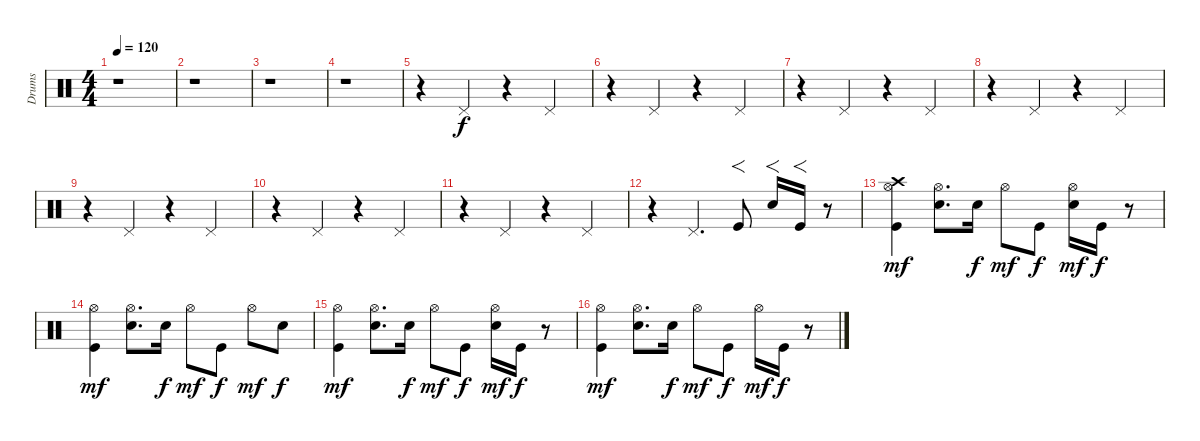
\track ("Drums" "Drums") {instrument percussion}
\staff {score}
\articulation defaults
\ts (4 4)
\tempo 120
\clef neutral
\ks c
r.1{dy f} |
r.1 |
r.1 |
r.1 |
r.4 "Pedal Hi-Hat (hit)".4 r.4 "Pedal Hi-Hat (hit)".4 |
r.4 "Pedal Hi-Hat (hit)".4 r.4 "Pedal Hi-Hat (hit)".4 |
r.4 "Pedal Hi-Hat (hit)".4 r.4 "Pedal Hi-Hat (hit)".4 |
r.4 "Pedal Hi-Hat (hit)".4 r.4 "Pedal Hi-Hat (hit)".4 |
r.4 "Pedal Hi-Hat (hit)".4 r.4 "Pedal Hi-Hat (hit)".4 |
r.4 "Pedal Hi-Hat (hit)".4 r.4 "Pedal Hi-Hat (hit)".4 |
r.4 "Pedal Hi-Hat (hit)".4 r.4 "Pedal Hi-Hat (hit)".4 |
r.4 "Pedal Hi-Hat (hit)".4{d} "Kick (hit)".8{f} "Electric Snare (hit)".16{f} "Kick (hit)".16{f} r.8 |
("Crash high (hit)" "Hi-Hat (open)" "Kick (hit)").4{dy mf} ("Hi-Hat (open)" "Electric Snare (hit)").8{d} "Electric Snare (hit)".16{dy f} "Hi-Hat (open)".8{dy mf} "Kick (hit)".8{dy f} ("Hi-Hat (open)" "Electric Snare (hit)").16{dy mf} "Kick (hit)".16{dy f} r.8 |
("Hi-Hat (open)" "Kick (hit)").4{dy mf} ("Hi-Hat (open)" "Electric Snare (hit)").8{d} "Electric Snare (hit)".16{dy f} "Hi-Hat (open)".8{dy mf} "Kick (hit)".8{dy f} "Hi-Hat (open)".8{dy mf} "Electric Snare (hit)".8{dy f} |
("Hi-Hat (open)" "Kick (hit)").4{dy mf} ("Hi-Hat (open)" "Electric Snare (hit)").8{d} "Electric Snare (hit)".16{dy f} "Hi-Hat (open)".8{dy mf} "Kick (hit)".8{dy f} ("Hi-Hat (open)" "Electric Snare (hit)").16{dy mf} "Kick (hit)".16{dy f} r.8 |
("Hi-Hat (open)" "Kick (hit)").4{dy mf} ("Hi-Hat (open)" "Electric Snare (hit)").8{d} "Electric Snare (hit)".16{dy f} "Hi-Hat (open)".8{dy mf} "Kick (hit)".8{dy f} "Hi-Hat (open)".16{dy mf} "Kick (hit)".16{dy f} r.8
